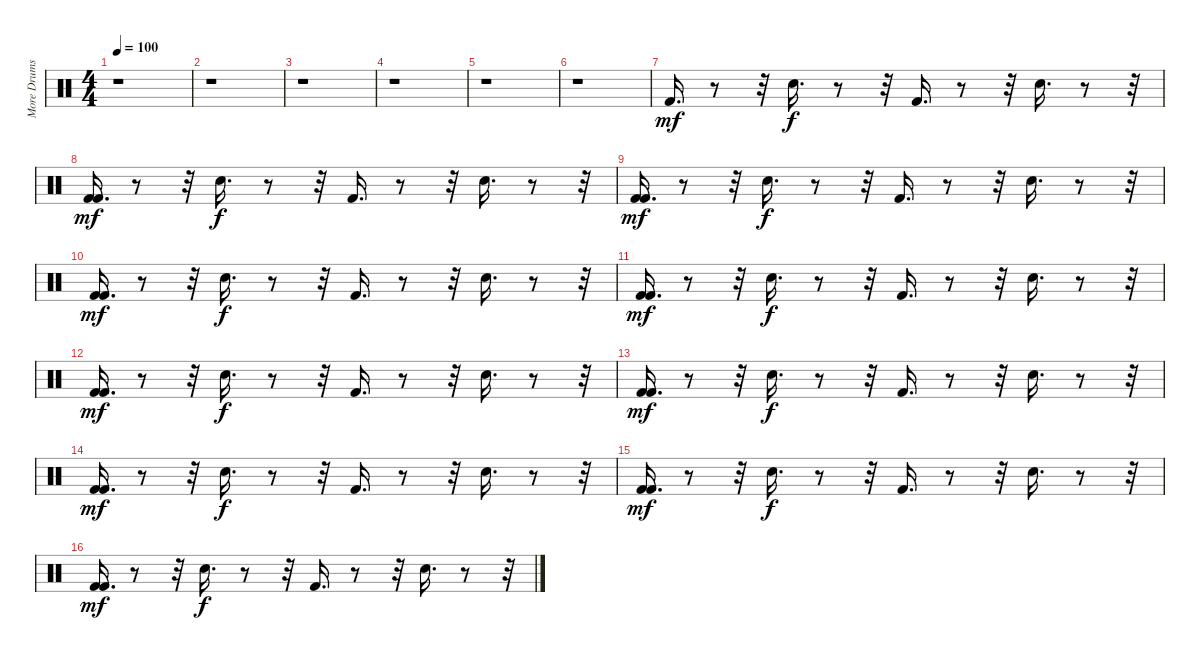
\track ("More Drums" "More Drums") {instrument percussion}
\staff {score}
\articulation defaults
\ts (4 4)
\tempo 100
\clef neutral
\ks c
r.1{dy mf} |
r.1 |
r.1 |
r.1 |
r.1 |
r.1 |
"Kick (hit) 2".16{d} r.8 r.32 "Electric Snare (hit)".16{d dy f} r.8 r.32 "Kick (hit) 2".16{d} r.8 r.32 "Electric Snare (hit)".16{d} r.8 r.32 |
("Kick (hit) 2" "Kick (hit) 2").16{d dy mf} r.8 r.32 "Electric Snare (hit)".16{d dy f} r.8 r.32 "Kick (hit) 2".16{d} r.8 r.32 "Electric Snare (hit)".16{d} r.8 r.32 |
("Kick (hit) 2" "Kick (hit) 2").16{d dy mf} r.8 r.32 "Electric Snare (hit)".16{d dy f} r.8 r.32 "Kick (hit) 2".16{d} r.8 r.32 "Electric Snare (hit)".16{d} r.8 r.32 |
("Kick (hit) 2" "Kick (hit) 2").16{d dy mf} r.8 r.32 "Electric Snare (hit)".16{d dy f} r.8 r.32 "Kick (hit) 2".16{d} r.8 r.32 "Electric Snare (hit)".16{d} r.8 r.32 |
("Kick (hit) 2" "Kick (hit) 2").16{d dy mf} r.8 r.32 "Electric Snare (hit)".16{d dy f} r.8 r.32 "Kick (hit) 2".16{d} r.8 r.32 "Electric Snare (hit)".16{d} r.8 r.32 |
("Kick (hit) 2" "Kick (hit) 2").16{d dy mf} r.8 r.32 "Electric Snare (hit)".16{d dy f} r.8 r.32 "Kick (hit) 2".16{d} r.8 r.32 "Electric Snare (hit)".16{d} r.8 r.32 |
("Kick (hit) 2" "Kick (hit) 2").16{d dy mf} r.8 r.32 "Electric Snare (hit)".16{d dy f} r.8 r.32 "Kick (hit) 2".16{d} r.8 r.32 "Electric Snare (hit)".16{d} r.8 r.32 |
("Kick (hit) 2" "Kick (hit) 2").16{d dy mf} r.8 r.32 "Electric Snare (hit)".16{d dy f} r.8 r.32 "Kick (hit) 2".16{d} r.8 r.32 "Electric Snare (hit)".16{d} r.8 r.32 |
("Kick (hit) 2" "Kick (hit) 2").16{d dy mf} r.8 r.32 "Electric Snare (hit)".16{d dy f} r.8 r.32 "Kick (hit) 2".16{d} r.8 r.32 "Electric Snare (hit)".16{d} r.8 r.32 |
("Kick (hit) 2" "Kick (hit) 2").16{d dy mf} r.8 r.32 "Electric Snare (hit)".16{d dy f} r.8 r.32 "Kick (hit) 2".16{d} r.8 r.32 "Electric Snare (hit)".16{d} r.8 r.32
